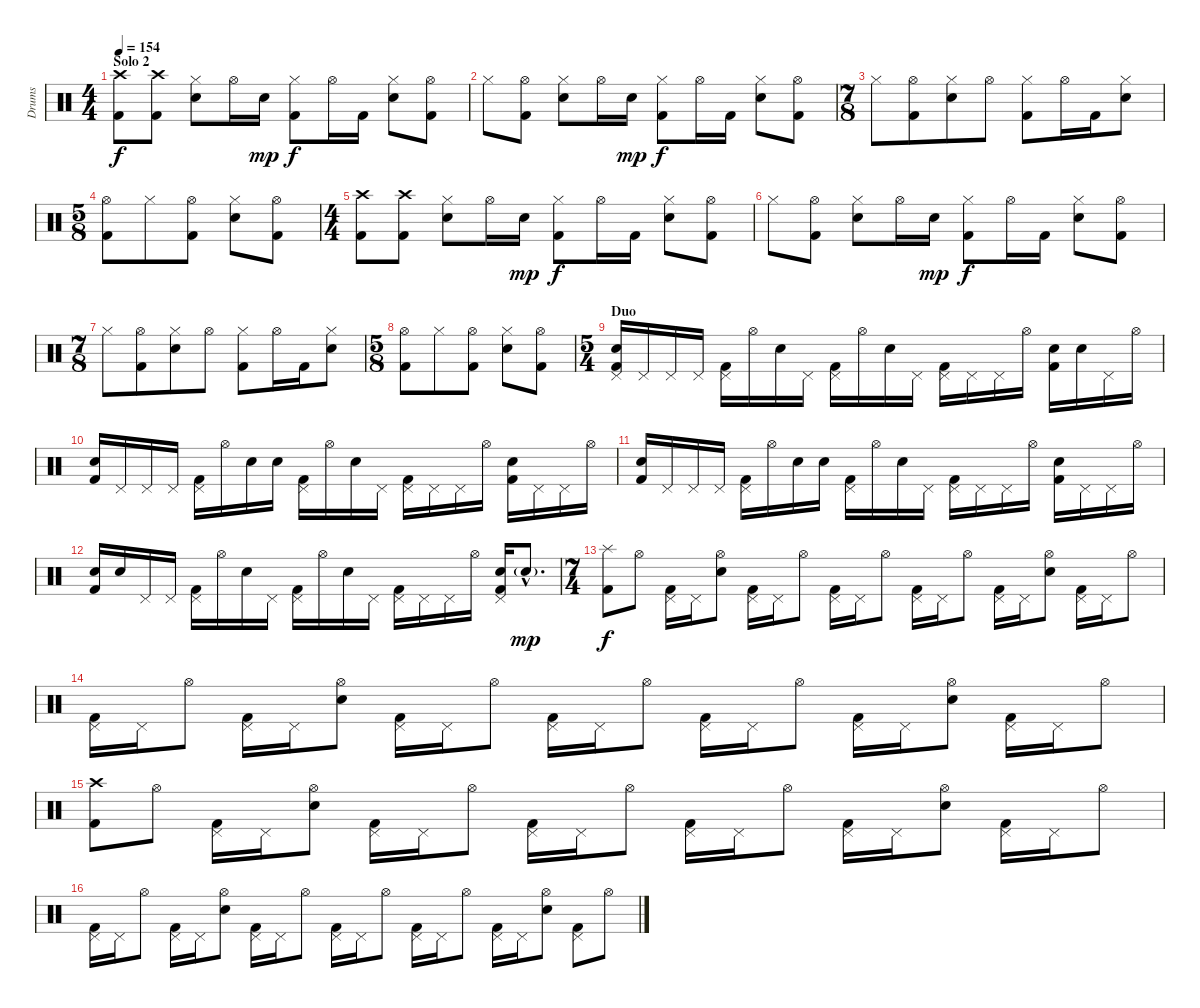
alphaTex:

\track ("Drums" "Drums") {instrument percussion}
\staff {score}
\articulation defaults
\ts (4 4)
\section ("" "Solo 2")
\tempo 154
\clef neutral
\ks c
("Crash high (hit)" "Kick (hit) 2").8{dy f} ("Crash high (hit)" "Kick (hit) 2").8 ("Hi-Hat (closed)" "Snare (hit) 2").8 "Hi-Hat (open)".16 "Snare (hit) 2".16{dy mp} ("Hi-Hat (closed)" "Kick (hit) 2").8{dy f} "Hi-Hat (open)".16 "Kick (hit) 2".16 ("Hi-Hat (closed)" "Snare (hit) 2").8 ("Hi-Hat (open)" "Kick (hit) 2").8 |
"Hi-Hat (closed)".8 ("Hi-Hat (open)" "Kick (hit) 2").8 ("Hi-Hat (closed)" "Snare (hit) 2").8 "Hi-Hat (open)".16 "Snare (hit) 2".16{dy mp} ("Hi-Hat (closed)" "Kick (hit) 2").8{dy f} "Hi-Hat (open)".16 "Kick (hit) 2".16 ("Hi-Hat (closed)" "Snare (hit) 2").8 ("Hi-Hat (open)" "Kick (hit) 2").8 |
\ts (7 8)
"Hi-Hat (closed)".8 ("Hi-Hat (open)" "Kick (hit) 2").8 ("Hi-Hat (closed)" "Snare (hit) 2").8 "Hi-Hat (open)".8 ("Hi-Hat (closed)" "Kick (hit) 2").8 "Hi-Hat (open)".16 "Kick (hit) 2".16 ("Hi-Hat (closed)" "Snare (hit) 2").8 |
\ts (5 8)
("Hi-Hat (open)" "Kick (hit) 2").8 "Hi-Hat (closed)".8 ("Hi-Hat (open)" "Kick (hit) 2").8 ("Hi-Hat (closed)" "Snare (hit) 2").8 ("Hi-Hat (open)" "Kick (hit) 2").8 |
\ts (4 4)
("Crash high (hit)" "Kick (hit) 2").8 ("Crash high (hit)" "Kick (hit) 2").8 ("Hi-Hat (closed)" "Snare (hit) 2").8 "Hi-Hat (open)".16 "Snare (hit) 2".16{dy mp} ("Hi-Hat (closed)" "Kick (hit) 2").8{dy f} "Hi-Hat (open)".16 "Kick (hit) 2".16 ("Hi-Hat (closed)" "Snare (hit) 2").8 ("Hi-Hat (open)" "Kick (hit) 2").8 |
"Hi-Hat (closed)".8 ("Hi-Hat (open)" "Kick (hit) 2").8 ("Hi-Hat (closed)" "Snare (hit) 2").8 "Hi-Hat (open)".16 "Snare (hit) 2".16{dy mp} ("Hi-Hat (closed)" "Kick (hit) 2").8{dy f} "Hi-Hat (open)".16 "Kick (hit) 2".16 ("Hi-Hat (closed)" "Snare (hit) 2").8 ("Hi-Hat (open)" "Kick (hit) 2").8 |
\ts (7 8)
"Hi-Hat (closed)".8 ("Hi-Hat (open)" "Kick (hit) 2").8 ("Hi-Hat (closed)" "Snare (hit) 2").8 "Hi-Hat (open)".8 ("Hi-Hat (closed)" "Kick (hit) 2").8 "Hi-Hat (open)".16 "Kick (hit) 2".16 ("Hi-Hat (closed)" "Snare (hit) 2").8 |
\ts (5 8)
("Hi-Hat (open)" "Kick (hit) 2").8 "Hi-Hat (closed)".8 ("Hi-Hat (open)" "Kick (hit) 2").8 ("Hi-Hat (closed)" "Snare (hit) 2").8 ("Hi-Hat (open)" "Kick (hit) 2").8 |
\ts (5 4)
\section ("" "Duo")
("Pedal Hi-Hat (hit)" "Snare (hit) 2" "Kick (hit) 2").16 "Pedal Hi-Hat (hit)".16 "Pedal Hi-Hat (hit)".16 "Pedal Hi-Hat (hit)".16 ("Pedal Hi-Hat (hit)" "Kick (hit) 2").16 "Hi-Hat (open)".16 "Snare (hit) 2".16 "Pedal Hi-Hat (hit)".16 ("Pedal Hi-Hat (hit)" "Kick (hit) 2").16 "Hi-Hat (open)".16 "Snare (hit) 2".16 "Pedal Hi-Hat (hit)".16 ("Pedal Hi-Hat (hit)" "Kick (hit) 2").16 "Pedal Hi-Hat (hit)".16 "Pedal Hi-Hat (hit)".16 "Hi-Hat (open)".16 ("Snare (hit) 2" "Kick (hit) 2").16 "Snare (hit) 2".16 "Pedal Hi-Hat (hit)".16 "Hi-Hat (open)".16 |
("Snare (hit) 2" "Kick (hit) 2").16 "Pedal Hi-Hat (hit)".16 "Pedal Hi-Hat (hit)".16 "Pedal Hi-Hat (hit)".16 ("Pedal Hi-Hat (hit)" "Kick (hit) 2").16 "Hi-Hat (open)".16 "Snare (hit) 2".16 "Snare (hit) 2".16 ("Pedal Hi-Hat (hit)" "Kick (hit) 2").16 "Hi-Hat (open)".16 "Snare (hit) 2".16 "Pedal Hi-Hat (hit)".16 ("Pedal Hi-Hat (hit)" "Kick (hit) 2").16 "Pedal Hi-Hat (hit)".16 "Pedal Hi-Hat (hit)".16 "Hi-Hat (open)".16 ("Snare (hit) 2" "Kick (hit) 2").16 "Pedal Hi-Hat (hit)".16 "Pedal Hi-Hat (hit)".16 "Hi-Hat (open)".16 |
("Snare (hit) 2" "Kick (hit) 2").16 "Pedal Hi-Hat (hit)".16 "Pedal Hi-Hat (hit)".16 "Pedal Hi-Hat (hit)".16 ("Pedal Hi-Hat (hit)" "Kick (hit) 2").16 "Hi-Hat (open)".16 "Snare (hit) 2".16 "Snare (hit) 2".16 ("Pedal Hi-Hat (hit)" "Kick (hit) 2").16 "Hi-Hat (open)".16 "Snare (hit) 2".16 "Pedal Hi-Hat (hit)".16 ("Pedal Hi-Hat (hit)" "Kick (hit) 2").16 "Pedal Hi-Hat (hit)".16 "Pedal Hi-Hat (hit)".16 "Hi-Hat (open)".16 ("Snare (hit) 2" "Kick (hit) 2").16 "Pedal Hi-Hat (hit)".16 "Pedal Hi-Hat (hit)".16 "Hi-Hat (open)".16 |
("Snare (hit) 2" "Kick (hit) 2").16 "Snare (hit) 2".16 "Pedal Hi-Hat (hit)".16 "Pedal Hi-Hat (hit)".16 ("Pedal Hi-Hat (hit)" "Kick (hit) 2").16 "Hi-Hat (open)".16 "Snare (hit) 2".16 "Pedal Hi-Hat (hit)".16 ("Pedal Hi-Hat (hit)" "Kick (hit) 2").16 "Hi-Hat (open)".16 "Snare (hit) 2".16 "Pedal Hi-Hat (hit)".16 ("Pedal Hi-Hat (hit)" "Kick (hit) 2").16 "Pedal Hi-Hat (hit)".16 "Pedal Hi-Hat (hit)".16 "Hi-Hat (open)".16 ("Pedal Hi-Hat (hit)" "Snare (hit) 2" "Kick (hit) 2").16 "Snare (hit) 2"{g hac}.8{d dy mp} |
\ts (7 4)
("Splash (hit)" "Kick (hit) 2").8{dy f} "Hi-Hat (open)".8 ("Pedal Hi-Hat (hit)" "Kick (hit) 2").16 "Pedal Hi-Hat (hit)".16 ("Hi-Hat (open)" "Snare (hit) 2").8 ("Pedal Hi-Hat (hit)" "Kick (hit) 2").16 "Pedal Hi-Hat (hit)".16 "Hi-Hat (open)".8 ("Pedal Hi-Hat (hit)" "Kick (hit) 2").16 "Pedal Hi-Hat (hit)".16 "Hi-Hat (open)".8 ("Pedal Hi-Hat (hit)" "Kick (hit) 2").16 "Pedal Hi-Hat (hit)".16 "Hi-Hat (open)".8 ("Pedal Hi-Hat (hit)" "Kick (hit) 2").16 "Pedal Hi-Hat (hit)".16 ("Hi-Hat (open)" "Snare (hit) 2").8 ("Pedal Hi-Hat (hit)" "Kick (hit) 2").16 "Pedal Hi-Hat (hit)".16 "Hi-Hat (open)".8 |
("Pedal Hi-Hat (hit)" "Kick (hit) 2").16 "Pedal Hi-Hat (hit)".16 "Hi-Hat (open)".8 ("Pedal Hi-Hat (hit)" "Kick (hit) 2").16 "Pedal Hi-Hat (hit)".16 ("Hi-Hat (open)" "Snare (hit) 2").8 ("Pedal Hi-Hat (hit)" "Kick (hit) 2").16 "Pedal Hi-Hat (hit)".16 "Hi-Hat (open)".8 ("Pedal Hi-Hat (hit)" "Kick (hit) 2").16 "Pedal Hi-Hat (hit)".16 "Hi-Hat (open)".8 ("Pedal Hi-Hat (hit)" "Kick (hit) 2").16 "Pedal Hi-Hat (hit)".16 "Hi-Hat (open)".8 ("Pedal Hi-Hat (hit)" "Kick (hit) 2").16 "Pedal Hi-Hat (hit)".16 ("Hi-Hat (open)" "Snare (hit) 2").8 ("Pedal Hi-Hat (hit)" "Kick (hit) 2").16 "Pedal Hi-Hat (hit)".16 "Hi-Hat (open)".8 |
("Crash high (hit)" "Kick (hit) 2").8 "Hi-Hat (open)".8 ("Pedal Hi-Hat (hit)" "Kick (hit) 2").16 "Pedal Hi-Hat (hit)".16 ("Hi-Hat (open)" "Snare (hit) 2").8 ("Pedal Hi-Hat (hit)" "Kick (hit) 2").16 "Pedal Hi-Hat (hit)".16 "Hi-Hat (open)".8 ("Pedal Hi-Hat (hit)" "Kick (hit) 2").16 "Pedal Hi-Hat (hit)".16 "Hi-Hat (open)".8 ("Pedal Hi-Hat (hit)" "Kick (hit) 2").16 "Pedal Hi-Hat (hit)".16 "Hi-Hat (open)".8 ("Pedal Hi-Hat (hit)" "Kick (hit) 2").16 "Pedal Hi-Hat (hit)".16 ("Hi-Hat (open)" "Snare (hit) 2").8 ("Pedal Hi-Hat (hit)" "Kick (hit) 2").16 "Pedal Hi-Hat (hit)".16 "Hi-Hat (open)".8 |
("Pedal Hi-Hat (hit)" "Kick (hit) 2").16 "Pedal Hi-Hat (hit)".16 "Hi-Hat (open)".8 ("Pedal Hi-Hat (hit)" "Kick (hit) 2").16 "Pedal Hi-Hat (hit)".16 ("Hi-Hat (open)" "Snare (hit) 2").8 ("Pedal Hi-Hat (hit)" "Kick (hit) 2").16 "Pedal Hi-Hat (hit)".16 "Hi-Hat (open)".8 ("Pedal Hi-Hat (hit)" "Kick (hit) 2").16 "Pedal Hi-Hat (hit)".16 "Hi-Hat (open)".8 ("Pedal Hi-Hat (hit)" "Kick (hit) 2").16 "Pedal Hi-Hat (hit)".16 "Hi-Hat (open)".8 ("Pedal Hi-Hat (hit)" "Kick (hit) 2").16 "Pedal Hi-Hat (hit)".16 ("Hi-Hat (open)" "Snare (hit) 2").8 ("Pedal Hi-Hat (hit)" "Kick (hit) 2").8 "Hi-Hat (open)".8
